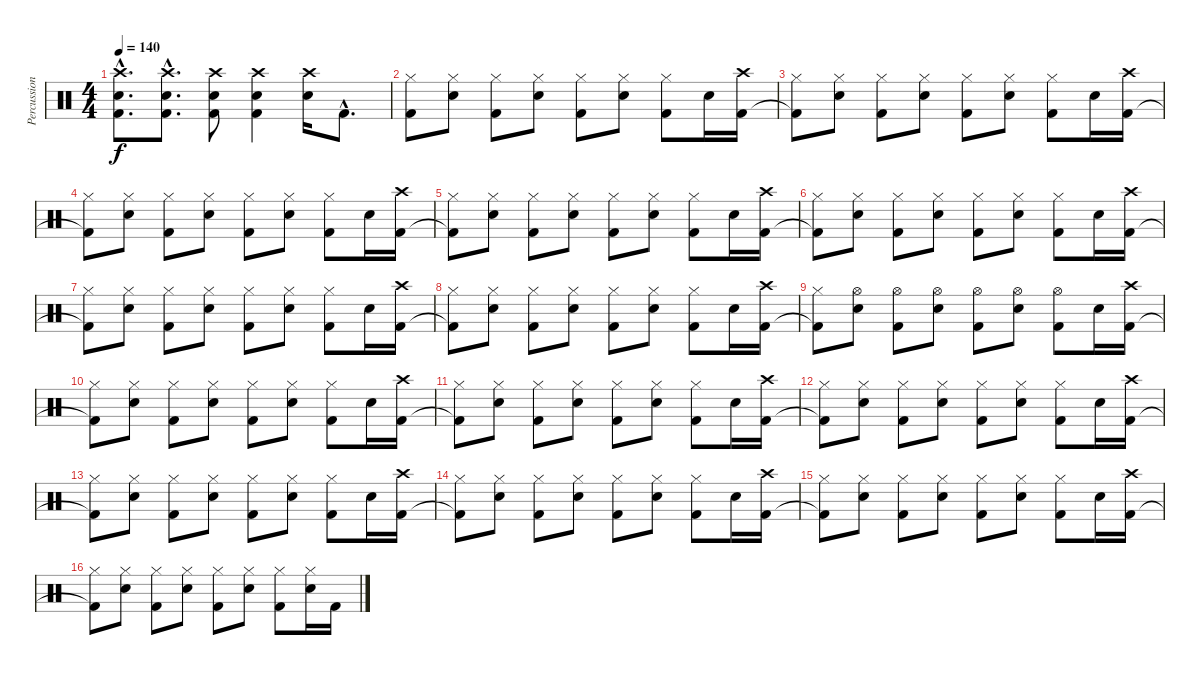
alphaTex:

\track ("Percussion" "Percussion") {instrument percussion}
\staff {score}
\articulation defaults
\ts (4 4)
\tempo 140
\clef neutral
\ks c
("Crash high (hit)"{hac} "Snare (hit) 2"{hac} "Kick (hit) 2"{hac}).8{d dy f} ("Crash high (hit)"{hac} "Snare (hit) 2"{hac} "Kick (hit) 2"{hac}).8{d} ("Crash high (hit)" "Snare (hit) 2" "Kick (hit) 2").8 ("Crash high (hit)" "Snare (hit) 2" "Kick (hit) 2").4 ("Crash high (hit)" "Snare (hit) 2").16 "Kick (hit) 2"{hac}.8{d} |
("Hi-Hat (closed)" "Kick (hit) 2").8 ("Hi-Hat (closed)" "Snare (hit) 2").8 ("Hi-Hat (closed)" "Kick (hit) 2").8 ("Hi-Hat (closed)" "Snare (hit) 2").8 ("Hi-Hat (closed)" "Kick (hit) 2").8 ("Hi-Hat (closed)" "Snare (hit) 2").8 ("Hi-Hat (closed)" "Kick (hit) 2").8 "Snare (hit) 2".16 ("Crash high (hit)" "Kick (hit) 2").16 |
("Hi-Hat (closed)" "Kick (hit) 2"{t}).8 ("Hi-Hat (closed)" "Snare (hit) 2").8 ("Hi-Hat (closed)" "Kick (hit) 2").8 ("Hi-Hat (closed)" "Snare (hit) 2").8 ("Hi-Hat (closed)" "Kick (hit) 2").8 ("Hi-Hat (closed)" "Snare (hit) 2").8 ("Hi-Hat (closed)" "Kick (hit) 2").8 "Snare (hit) 2".16 ("Crash high (hit)" "Kick (hit) 2").16 |
("Hi-Hat (closed)" "Kick (hit) 2"{t}).8 ("Hi-Hat (closed)" "Snare (hit) 2").8 ("Hi-Hat (closed)" "Kick (hit) 2").8 ("Hi-Hat (closed)" "Snare (hit) 2").8 ("Hi-Hat (closed)" "Kick (hit) 2").8 ("Hi-Hat (closed)" "Snare (hit) 2").8 ("Hi-Hat (closed)" "Kick (hit) 2").8 "Snare (hit) 2".16 ("Crash high (hit)" "Kick (hit) 2").16 |
("Hi-Hat (closed)" "Kick (hit) 2"{t}).8 ("Hi-Hat (closed)" "Snare (hit) 2").8 ("Hi-Hat (closed)" "Kick (hit) 2").8 ("Hi-Hat (closed)" "Snare (hit) 2").8 ("Hi-Hat (closed)" "Kick (hit) 2").8 ("Hi-Hat (closed)" "Snare (hit) 2").8 ("Hi-Hat (closed)" "Kick (hit) 2").8 "Snare (hit) 2".16 ("Crash high (hit)" "Kick (hit) 2").16 |
("Hi-Hat (closed)" "Kick (hit) 2"{t}).8 ("Hi-Hat (closed)" "Snare (hit) 2").8 ("Hi-Hat (closed)" "Kick (hit) 2").8 ("Hi-Hat (closed)" "Snare (hit) 2").8 ("Hi-Hat (closed)" "Kick (hit) 2").8 ("Hi-Hat (closed)" "Snare (hit) 2").8 ("Hi-Hat (closed)" "Kick (hit) 2").8 "Snare (hit) 2".16 ("Crash high (hit)" "Kick (hit) 2").16 |
("Hi-Hat (closed)" "Kick (hit) 2"{t}).8 ("Hi-Hat (closed)" "Snare (hit) 2").8 ("Hi-Hat (closed)" "Kick (hit) 2").8 ("Hi-Hat (closed)" "Snare (hit) 2").8 ("Hi-Hat (closed)" "Kick (hit) 2").8 ("Hi-Hat (closed)" "Snare (hit) 2").8 ("Hi-Hat (closed)" "Kick (hit) 2").8 "Snare (hit) 2".16 ("Crash high (hit)" "Kick (hit) 2").16 |
("Hi-Hat (closed)" "Kick (hit) 2"{t}).8 ("Hi-Hat (closed)" "Snare (hit) 2").8 ("Hi-Hat (closed)" "Kick (hit) 2").8 ("Hi-Hat (closed)" "Snare (hit) 2").8 ("Hi-Hat (closed)" "Kick (hit) 2").8 ("Hi-Hat (closed)" "Snare (hit) 2").8 ("Hi-Hat (closed)" "Kick (hit) 2").8 "Snare (hit) 2".16 ("Crash high (hit)" "Kick (hit) 2").16 |
("Hi-Hat (closed)" "Kick (hit) 2"{t}).8 ("Hi-Hat (open)" "Snare (hit) 2").8 ("Hi-Hat (open)" "Kick (hit) 2").8 ("Hi-Hat (open)" "Snare (hit) 2").8 ("Hi-Hat (open)" "Kick (hit) 2").8 ("Hi-Hat (open)" "Snare (hit) 2").8 ("Hi-Hat (open)" "Kick (hit) 2").8 "Snare (hit) 2".16 ("Crash high (hit)" "Kick (hit) 2").16 |
("Hi-Hat (closed)" "Kick (hit) 2"{t}).8 ("Hi-Hat (closed)" "Snare (hit) 2").8 ("Hi-Hat (closed)" "Kick (hit) 2").8 ("Hi-Hat (closed)" "Snare (hit) 2").8 ("Hi-Hat (closed)" "Kick (hit) 2").8 ("Hi-Hat (closed)" "Snare (hit) 2").8 ("Hi-Hat (closed)" "Kick (hit) 2").8 "Snare (hit) 2".16 ("Crash high (hit)" "Kick (hit) 2").16 |
("Hi-Hat (closed)" "Kick (hit) 2"{t}).8 ("Hi-Hat (closed)" "Snare (hit) 2").8 ("Hi-Hat (closed)" "Kick (hit) 2").8 ("Hi-Hat (closed)" "Snare (hit) 2").8 ("Hi-Hat (closed)" "Kick (hit) 2").8 ("Hi-Hat (closed)" "Snare (hit) 2").8 ("Hi-Hat (closed)" "Kick (hit) 2").8 "Snare (hit) 2".16 ("Crash high (hit)" "Kick (hit) 2").16 |
("Hi-Hat (closed)" "Kick (hit) 2"{t}).8 ("Hi-Hat (closed)" "Snare (hit) 2").8 ("Hi-Hat (closed)" "Kick (hit) 2").8 ("Hi-Hat (closed)" "Snare (hit) 2").8 ("Hi-Hat (closed)" "Kick (hit) 2").8 ("Hi-Hat (closed)" "Snare (hit) 2").8 ("Hi-Hat (closed)" "Kick (hit) 2").8 "Snare (hit) 2".16 ("Crash high (hit)" "Kick (hit) 2").16 |
("Hi-Hat (closed)" "Kick (hit) 2"{t}).8 ("Hi-Hat (closed)" "Snare (hit) 2").8 ("Hi-Hat (closed)" "Kick (hit) 2").8 ("Hi-Hat (closed)" "Snare (hit) 2").8 ("Hi-Hat (closed)" "Kick (hit) 2").8 ("Hi-Hat (closed)" "Snare (hit) 2").8 ("Hi-Hat (closed)" "Kick (hit) 2").8 "Snare (hit) 2".16 ("Crash high (hit)" "Kick (hit) 2").16 |
("Hi-Hat (closed)" "Kick (hit) 2"{t}).8 ("Hi-Hat (closed)" "Snare (hit) 2").8 ("Hi-Hat (closed)" "Kick (hit) 2").8 ("Hi-Hat (closed)" "Snare (hit) 2").8 ("Hi-Hat (closed)" "Kick (hit) 2").8 ("Hi-Hat (closed)" "Snare (hit) 2").8 ("Hi-Hat (closed)" "Kick (hit) 2").8 "Snare (hit) 2".16 ("Crash high (hit)" "Kick (hit) 2").16 |
("Hi-Hat (closed)" "Kick (hit) 2"{t}).8 ("Hi-Hat (closed)" "Snare (hit) 2").8 ("Hi-Hat (closed)" "Kick (hit) 2").8 ("Hi-Hat (closed)" "Snare (hit) 2").8 ("Hi-Hat (closed)" "Kick (hit) 2").8 ("Hi-Hat (closed)" "Snare (hit) 2").8 ("Hi-Hat (closed)" "Kick (hit) 2").8 "Snare (hit) 2".16 ("Crash high (hit)" "Kick (hit) 2").16 |
("Hi-Hat (closed)" "Kick (hit) 2"{t}).8 ("Hi-Hat (closed)" "Snare (hit) 2").8 ("Hi-Hat (closed)" "Kick (hit) 2").8 ("Hi-Hat (closed)" "Snare (hit) 2").8 ("Hi-Hat (closed)" "Kick (hit) 2").8 ("Hi-Hat (closed)" "Snare (hit) 2").8 ("Hi-Hat (closed)" "Kick (hit) 2").8 ("Hi-Hat (closed)" "Snare (hit) 2").16 "Kick (hit) 2".16
